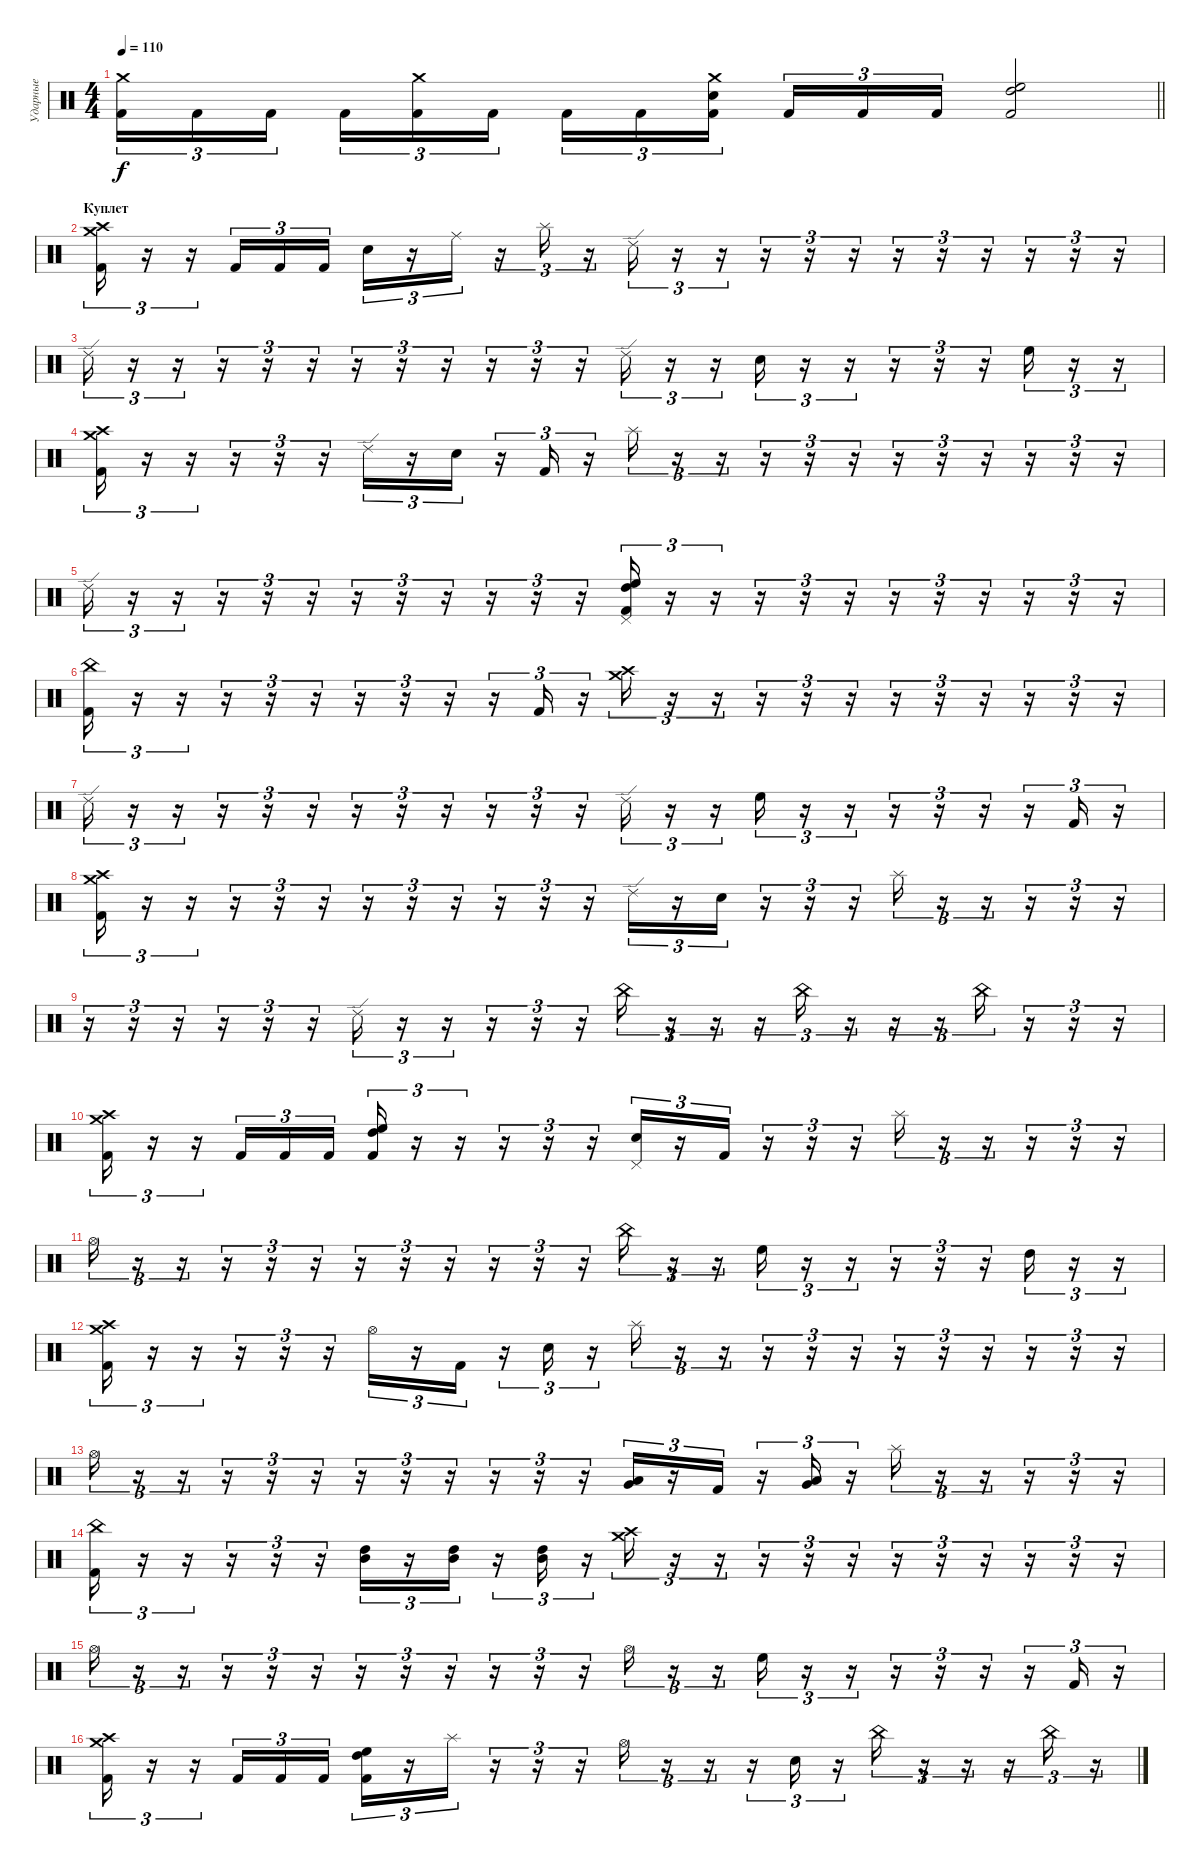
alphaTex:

\track ("Ударные" "Ударные") {instrument percussion}
\staff {score}
\articulation defaults
\ts (4 4)
\tempo 110
\clef neutral
\barLineRight lightlight
\ks c
("Crash medium (hit)" "Kick (hit) 2").16{tu (3 2) dy f} "Kick (hit) 2".16{tu (3 2)} "Kick (hit) 2".16{tu (3 2) beam splitsecondary} "Kick (hit) 2".16{tu (3 2)} ("Crash medium (hit)" "Kick (hit) 2").16{tu (3 2)} "Kick (hit) 2".16{tu (3 2)} "Kick (hit) 2".16{tu (3 2)} "Kick (hit) 2".16{tu (3 2)} ("Crash medium (hit)" "Electric Snare (hit)" "Kick (hit) 2").16{tu (3 2) beam splitsecondary} "Kick (hit) 2".16{tu (3 2)} "Kick (hit) 2".16{tu (3 2)} "Kick (hit) 2".16{tu (3 2)} ("High Floor Tom (hit)" "High Tom (hit)" "Kick (hit) 2").2 |
\section ("" "Куплет")
("Crash high (hit)" "Crash medium (hit)" "Kick (hit) 2").16{tu (3 2)} r.16{tu (3 2)} r.16{tu (3 2)} "Kick (hit) 2".16{tu (3 2)} "Kick (hit) 2".16{tu (3 2)} "Kick (hit) 2".16{tu (3 2)} "Electric Snare (hit)".16{tu (3 2)} r.16{tu (3 2)} "Ride (middle)".16{tu (3 2)} r.16{tu (3 2)} "Splash (hit)".16{tu (3 2)} r.16{tu (3 2)} "Ride (edge) 2".16{tu (3 2)} r.16{tu (3 2)} r.16{tu (3 2)} r.16{tu (3 2)} r.16{tu (3 2)} r.16{tu (3 2)} r.16{tu (3 2)} r.16{tu (3 2)} r.16{tu (3 2)} r.16{tu (3 2)} r.16{tu (3 2)} r.16{tu (3 2)} |
"Ride (edge) 2".16{tu (3 2)} r.16{tu (3 2)} r.16{tu (3 2)} r.16{tu (3 2)} r.16{tu (3 2)} r.16{tu (3 2)} r.16{tu (3 2)} r.16{tu (3 2)} r.16{tu (3 2)} r.16{tu (3 2)} r.16{tu (3 2)} r.16{tu (3 2)} "Ride (edge) 2".16{tu (3 2)} r.16{tu (3 2)} r.16{tu (3 2)} "Electric Snare (hit)".16{tu (3 2)} r.16{tu (3 2)} r.16{tu (3 2)} r.16{tu (3 2)} r.16{tu (3 2)} r.16{tu (3 2)} "High Floor Tom (hit)".16{tu (3 2)} r.16{tu (3 2)} r.16{tu (3 2)} |
("Crash medium (hit)" "Crash high (hit)" "Kick (hit) 2").16{tu (3 2)} r.16{tu (3 2)} r.16{tu (3 2)} r.16{tu (3 2)} r.16{tu (3 2)} r.16{tu (3 2)} "Ride (edge) 2".16{tu (3 2)} r.16{tu (3 2)} "Electric Snare (hit)".16{tu (3 2)} r.16{tu (3 2)} "Kick (hit) 2".16{tu (3 2)} r.16{tu (3 2)} "Splash (hit)".16{tu (3 2)} r.16{tu (3 2)} r.16{tu (3 2)} r.16{tu (3 2)} r.16{tu (3 2)} r.16{tu (3 2)} r.16{tu (3 2)} r.16{tu (3 2)} r.16{tu (3 2)} r.16{tu (3 2)} r.16{tu (3 2)} r.16{tu (3 2)} |
"Ride (edge) 2".16{tu (3 2)} r.16{tu (3 2)} r.16{tu (3 2)} r.16{tu (3 2)} r.16{tu (3 2)} r.16{tu (3 2)} r.16{tu (3 2)} r.16{tu (3 2)} r.16{tu (3 2)} r.16{tu (3 2)} r.16{tu (3 2)} r.16{tu (3 2)} ("Pedal Hi-Hat (hit)" "High Floor Tom (hit)" "High Tom (hit)" "Kick (hit) 2").16{tu (3 2)} r.16{tu (3 2)} r.16{tu (3 2)} r.16{tu (3 2)} r.16{tu (3 2)} r.16{tu (3 2)} r.16{tu (3 2)} r.16{tu (3 2)} r.16{tu (3 2)} r.16{tu (3 2)} r.16{tu (3 2)} r.16{tu (3 2)} |
("China (hit)" "Kick (hit) 2").16{tu (3 2)} r.16{tu (3 2)} r.16{tu (3 2)} r.16{tu (3 2)} r.16{tu (3 2)} r.16{tu (3 2)} r.16{tu (3 2)} r.16{tu (3 2)} r.16{tu (3 2)} r.16{tu (3 2)} "Kick (hit) 2".16{tu (3 2)} r.16{tu (3 2)} ("Crash medium (hit)" "Crash high (hit)").16{tu (3 2)} r.16{tu (3 2)} r.16{tu (3 2)} r.16{tu (3 2)} r.16{tu (3 2)} r.16{tu (3 2)} r.16{tu (3 2)} r.16{tu (3 2)} r.16{tu (3 2)} r.16{tu (3 2)} r.16{tu (3 2)} r.16{tu (3 2)} |
"Ride (edge) 2".16{tu (3 2)} r.16{tu (3 2)} r.16{tu (3 2)} r.16{tu (3 2)} r.16{tu (3 2)} r.16{tu (3 2)} r.16{tu (3 2)} r.16{tu (3 2)} r.16{tu (3 2)} r.16{tu (3 2)} r.16{tu (3 2)} r.16{tu (3 2)} "Ride (edge) 2".16{tu (3 2)} r.16{tu (3 2)} r.16{tu (3 2)} "High Floor Tom (hit)".16{tu (3 2)} r.16{tu (3 2)} r.16{tu (3 2)} r.16{tu (3 2)} r.16{tu (3 2)} r.16{tu (3 2)} r.16{tu (3 2)} "Kick (hit) 2".16{tu (3 2)} r.16{tu (3 2)} |
("Crash medium (hit)" "Crash high (hit)" "Kick (hit) 2").16{tu (3 2)} r.16{tu (3 2)} r.16{tu (3 2)} r.16{tu (3 2)} r.16{tu (3 2)} r.16{tu (3 2)} r.16{tu (3 2)} r.16{tu (3 2)} r.16{tu (3 2)} r.16{tu (3 2)} r.16{tu (3 2)} r.16{tu (3 2)} "Ride (edge) 2".16{tu (3 2)} r.16{tu (3 2)} "Electric Snare (hit)".16{tu (3 2)} r.16{tu (3 2)} r.16{tu (3 2)} r.16{tu (3 2)} "Splash (hit)".16{tu (3 2)} r.16{tu (3 2)} r.16{tu (3 2)} r.16{tu (3 2)} r.16{tu (3 2)} r.16{tu (3 2)} |
r.16{tu (3 2)} r.16{tu (3 2)} r.16{tu (3 2)} r.16{tu (3 2)} r.16{tu (3 2)} r.16{tu (3 2)} "Ride (edge) 2".16{tu (3 2)} r.16{tu (3 2)} r.16{tu (3 2)} r.16{tu (3 2)} r.16{tu (3 2)} r.16{tu (3 2)} "China (hit)".16{tu (3 2)} r.16{tu (3 2)} r.16{tu (3 2)} r.16{tu (3 2)} "China (hit)".16{tu (3 2)} r.16{tu (3 2)} r.16{tu (3 2)} r.16{tu (3 2)} "China (hit)".16{tu (3 2)} r.16{tu (3 2)} r.16{tu (3 2)} r.16{tu (3 2)} |
("Crash high (hit)" "Crash medium (hit)" "Kick (hit) 2").16{tu (3 2)} r.16{tu (3 2)} r.16{tu (3 2)} "Kick (hit) 2".16{tu (3 2)} "Kick (hit) 2".16{tu (3 2)} "Kick (hit) 2".16{tu (3 2)} ("High Tom (hit)" "High Floor Tom (hit)" "Kick (hit) 2").16{tu (3 2)} r.16{tu (3 2)} r.16{tu (3 2)} r.16{tu (3 2)} r.16{tu (3 2)} r.16{tu (3 2)} ("Pedal Hi-Hat (hit)" "Electric Snare (hit)").16{tu (3 2)} r.16{tu (3 2)} "Kick (hit) 2".16{tu (3 2)} r.16{tu (3 2)} r.16{tu (3 2)} r.16{tu (3 2)} "Splash (hit)".16{tu (3 2)} r.16{tu (3 2)} r.16{tu (3 2)} r.16{tu (3 2)} r.16{tu (3 2)} r.16{tu (3 2)} |
"Hi-Hat (open)".16{tu (3 2)} r.16{tu (3 2)} r.16{tu (3 2)} r.16{tu (3 2)} r.16{tu (3 2)} r.16{tu (3 2)} r.16{tu (3 2)} r.16{tu (3 2)} r.16{tu (3 2)} r.16{tu (3 2)} r.16{tu (3 2)} r.16{tu (3 2)} "China (hit)".16{tu (3 2)} r.16{tu (3 2)} r.16{tu (3 2)} "High Floor Tom (hit)".16{tu (3 2)} r.16{tu (3 2)} r.16{tu (3 2)} r.16{tu (3 2)} r.16{tu (3 2)} r.16{tu (3 2)} "High Tom (hit)".16{tu (3 2)} r.16{tu (3 2)} r.16{tu (3 2)} |
("Crash medium (hit)" "Crash high (hit)" "Kick (hit) 2").16{tu (3 2)} r.16{tu (3 2)} r.16{tu (3 2)} r.16{tu (3 2)} r.16{tu (3 2)} r.16{tu (3 2)} "Hi-Hat (open)".16{tu (3 2)} r.16{tu (3 2)} "Kick (hit) 2".16{tu (3 2)} r.16{tu (3 2)} "Electric Snare (hit)".16{tu (3 2)} r.16{tu (3 2)} "Splash (hit)".16{tu (3 2)} r.16{tu (3 2)} r.16{tu (3 2)} r.16{tu (3 2)} r.16{tu (3 2)} r.16{tu (3 2)} r.16{tu (3 2)} r.16{tu (3 2)} r.16{tu (3 2)} r.16{tu (3 2)} r.16{tu (3 2)} r.16{tu (3 2)} |
"Hi-Hat (open)".16{tu (3 2)} r.16{tu (3 2)} r.16{tu (3 2)} r.16{tu (3 2)} r.16{tu (3 2)} r.16{tu (3 2)} r.16{tu (3 2)} r.16{tu (3 2)} r.16{tu (3 2)} r.16{tu (3 2)} r.16{tu (3 2)} r.16{tu (3 2)} ("Very Low Tom (hit)" "Low Tom (hit)").16{tu (3 2)} r.16{tu (3 2)} "Kick (hit) 2".16{tu (3 2)} r.16{tu (3 2)} ("Low Tom (hit)" "Very Low Tom (hit)").16{tu (3 2)} r.16{tu (3 2)} "Splash (hit)".16{tu (3 2)} r.16{tu (3 2)} r.16{tu (3 2)} r.16{tu (3 2)} r.16{tu (3 2)} r.16{tu (3 2)} |
("China (hit)" "Kick (hit) 2").16{tu (3 2)} r.16{tu (3 2)} r.16{tu (3 2)} r.16{tu (3 2)} r.16{tu (3 2)} r.16{tu (3 2)} ("High Tom (hit)" "Mid Tom (hit)").16{tu (3 2)} r.16{tu (3 2)} ("High Tom (hit)" "Mid Tom (hit)").16{tu (3 2)} r.16{tu (3 2)} ("High Tom (hit)" "Mid Tom (hit)").16{tu (3 2)} r.16{tu (3 2)} ("Crash medium (hit)" "Crash high (hit)").16{tu (3 2)} r.16{tu (3 2)} r.16{tu (3 2)} r.16{tu (3 2)} r.16{tu (3 2)} r.16{tu (3 2)} r.16{tu (3 2)} r.16{tu (3 2)} r.16{tu (3 2)} r.16{tu (3 2)} r.16{tu (3 2)} r.16{tu (3 2)} |
"Hi-Hat (open)".16{tu (3 2)} r.16{tu (3 2)} r.16{tu (3 2)} r.16{tu (3 2)} r.16{tu (3 2)} r.16{tu (3 2)} r.16{tu (3 2)} r.16{tu (3 2)} r.16{tu (3 2)} r.16{tu (3 2)} r.16{tu (3 2)} r.16{tu (3 2)} "Hi-Hat (open)".16{tu (3 2)} r.16{tu (3 2)} r.16{tu (3 2)} "High Floor Tom (hit)".16{tu (3 2)} r.16{tu (3 2)} r.16{tu (3 2)} r.16{tu (3 2)} r.16{tu (3 2)} r.16{tu (3 2)} r.16{tu (3 2)} "Kick (hit) 2".16{tu (3 2)} r.16{tu (3 2)} |
("Crash medium (hit)" "Crash high (hit)" "Kick (hit) 2").16{tu (3 2)} r.16{tu (3 2)} r.16{tu (3 2)} "Kick (hit) 2".16{tu (3 2)} "Kick (hit) 2".16{tu (3 2)} "Kick (hit) 2".16{tu (3 2)} ("High Tom (hit)" "High Floor Tom (hit)" "Kick (hit) 2").16{tu (3 2)} r.16{tu (3 2)} "Splash (hit)".16{tu (3 2)} r.16{tu (3 2)} r.16{tu (3 2)} r.16{tu (3 2)} "Hi-Hat (open)".16{tu (3 2)} r.16{tu (3 2)} r.16{tu (3 2)} r.16{tu (3 2)} "Electric Snare (hit)".16{tu (3 2)} r.16{tu (3 2)} "China (hit)".16{tu (3 2)} r.16{tu (3 2)} r.16{tu (3 2)} r.16{tu (3 2)} "China (hit)".16{tu (3 2)} r.16{tu (3 2)}
